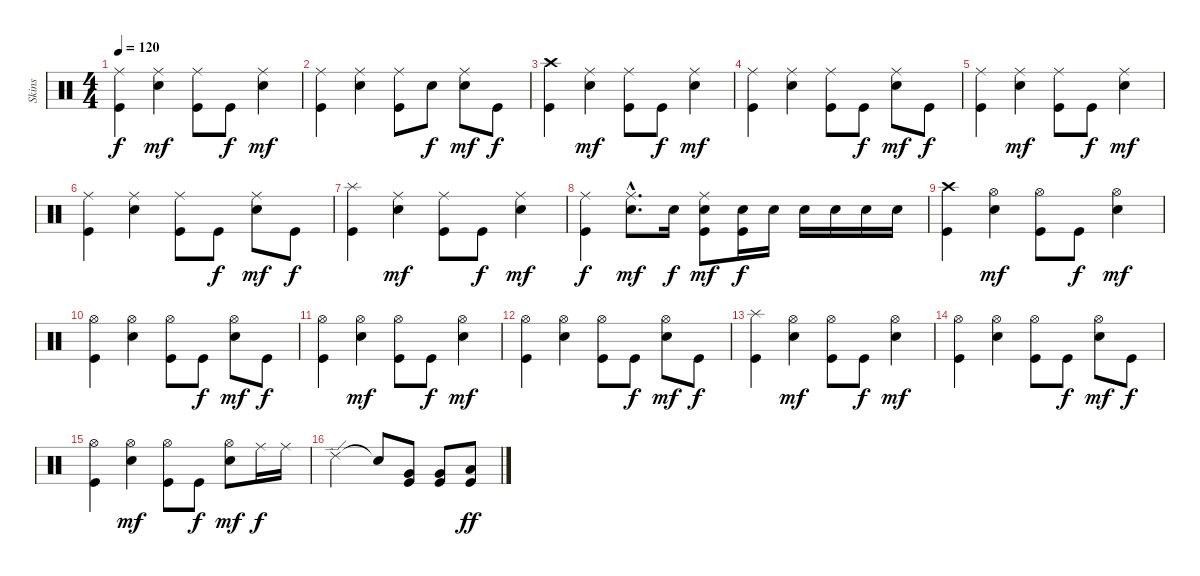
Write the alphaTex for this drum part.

\track ("Skins" "Skins") {instrument percussion}
\staff {score}
\articulation defaults
\ts (4 4)
\tempo 120
\clef neutral
\ks c
("Ride (middle)" "Kick (hit)").4{dy f} ("Ride (middle)" "Snare (hit) 2").4{dy mf} ("Ride (middle)" "Kick (hit)").8 "Kick (hit)".8{dy f} ("Ride (middle)" "Snare (hit) 2").4{dy mf} |
("Ride (middle)" "Kick (hit)").4 ("Ride (middle)" "Snare (hit) 2").4 ("Ride (middle)" "Kick (hit)").8 "Snare (hit) 2".8{dy f} ("Ride (middle)" "Snare (hit) 2").8{dy mf} "Kick (hit)".8{dy f} |
("Crash high (hit)" "Kick (hit)").4 ("Ride (middle)" "Snare (hit) 2").4{dy mf} ("Ride (middle)" "Kick (hit)").8 "Kick (hit)".8{dy f} ("Ride (middle)" "Snare (hit) 2").4{dy mf} |
("Ride (middle)" "Kick (hit)").4 ("Ride (middle)" "Snare (hit) 2").4 ("Ride (middle)" "Kick (hit)").8 "Kick (hit)".8{dy f} ("Ride (middle)" "Snare (hit) 2").8{dy mf} "Kick (hit)".8{dy f} |
("Ride (middle)" "Kick (hit)").4 ("Ride (middle)" "Snare (hit) 2").4{dy mf} ("Ride (middle)" "Kick (hit)").8 "Kick (hit)".8{dy f} ("Ride (middle)" "Snare (hit) 2").4{dy mf} |
("Ride (middle)" "Kick (hit)").4 ("Ride (middle)" "Snare (hit) 2").4 ("Ride (middle)" "Kick (hit)").8 "Kick (hit)".8{dy f} ("Ride (middle)" "Snare (hit) 2").8{dy mf} "Kick (hit)".8{dy f} |
("Splash (hit)" "Kick (hit)").4 ("Ride (middle)" "Snare (hit) 2").4{dy mf} ("Ride (middle)" "Kick (hit)").8 "Kick (hit)".8{dy f} ("Ride (middle)" "Snare (hit) 2").4{dy mf} |
("Ride (middle)" "Kick (hit)").4{dy f} ("Ride (middle)"{hac} "Snare (hit) 2"{hac}).8{d dy mf} "Snare (hit) 2".16{dy f} ("Ride (middle)" "Snare (hit) 2" "Kick (hit)").8{dy mf} ("Snare (hit) 2" "Kick (hit)").16{dy f} "Snare (hit) 2".16 "Snare (hit) 2".16 "Snare (hit) 2".16 "Snare (hit) 2".16 "Snare (hit) 2".16 |
("Crash high (hit)" "Kick (hit)").4 ("Hi-Hat (open)" "Snare (hit) 2").4{dy mf} ("Hi-Hat (open)" "Kick (hit)").8 "Kick (hit)".8{dy f} ("Hi-Hat (open)" "Snare (hit) 2").4{dy mf} |
("Hi-Hat (open)" "Kick (hit)").4 ("Hi-Hat (open)" "Snare (hit) 2").4 ("Hi-Hat (open)" "Kick (hit)").8 "Kick (hit)".8{dy f} ("Hi-Hat (open)" "Snare (hit) 2").8{dy mf} "Kick (hit)".8{dy f} |
("Hi-Hat (open)" "Kick (hit)").4 ("Hi-Hat (open)" "Snare (hit) 2").4{dy mf} ("Hi-Hat (open)" "Kick (hit)").8 "Kick (hit)".8{dy f} ("Hi-Hat (open)" "Snare (hit) 2").4{dy mf} |
("Hi-Hat (open)" "Kick (hit)").4 ("Hi-Hat (open)" "Snare (hit) 2").4 ("Hi-Hat (open)" "Kick (hit)").8 "Kick (hit)".8{dy f} ("Hi-Hat (open)" "Snare (hit) 2").8{dy mf} "Kick (hit)".8{dy f} |
("Splash (hit)" "Kick (hit)").4 ("Hi-Hat (open)" "Snare (hit) 2").4{dy mf} ("Hi-Hat (open)" "Kick (hit)").8 "Kick (hit)".8{dy f} ("Hi-Hat (open)" "Snare (hit) 2").4{dy mf} |
("Hi-Hat (open)" "Kick (hit)").4 ("Hi-Hat (open)" "Snare (hit) 2").4 ("Hi-Hat (open)" "Kick (hit)").8 "Kick (hit)".8{dy f} ("Hi-Hat (open)" "Snare (hit) 2").8{dy mf} "Kick (hit)".8{dy f} |
("Hi-Hat (open)" "Kick (hit)").4 ("Hi-Hat (open)" "Snare (hit) 2").4{dy mf} ("Hi-Hat (open)" "Kick (hit)").8 "Kick (hit)".8{dy f} ("Hi-Hat (open)" "Snare (hit) 2").8{dy mf} "Ride (middle)".16{dy f} "Ride (middle)".16 |
"Ride (edge) 2".2 "Snare (hit)"{t}.8 ("Very Low Tom (hit)" "Kick (hit)").8 ("Very Low Tom (hit)" "Kick (hit)").8 ("Low Floor Tom (hit)" "Kick (hit)").8{dy ff}
